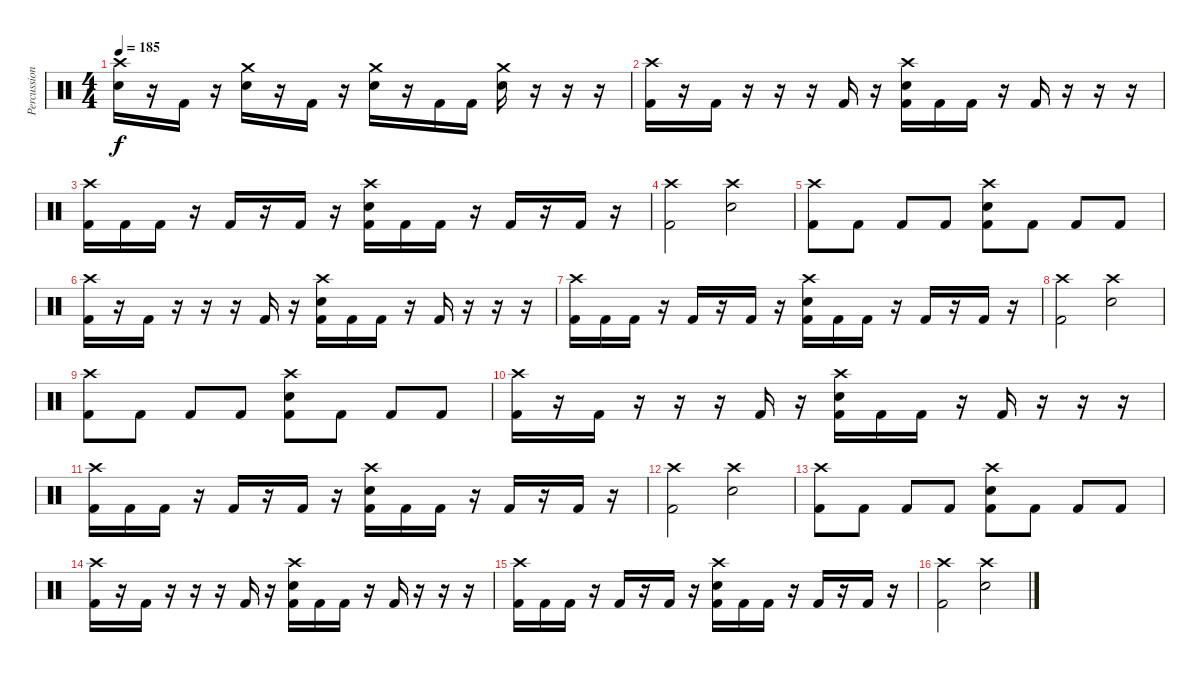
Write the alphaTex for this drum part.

\track ("Percussion" "Percussion") {instrument percussion}
\staff {score}
\articulation defaults
\ts (4 4)
\tempo 185
\clef neutral
\ks c
("Crash high (hit)" "Snare (hit) 2").16{dy f} r.16 "Kick (hit) 2".16 r.16 ("Crash medium (hit)" "Snare (hit) 2").16 r.16 "Kick (hit) 2".16 r.16 ("Crash medium (hit)" "Snare (hit) 2").16 r.16 "Kick (hit) 2".16 "Kick (hit) 2".16 ("Crash medium (hit)" "Snare (hit) 2").16 r.16 r.16 r.16 |
("Crash high (hit)" "Kick (hit) 2").16 r.16 "Kick (hit) 2".16 r.16 r.16 r.16 "Kick (hit) 2".16 r.16 ("Crash high (hit)" "Snare (hit) 2" "Kick (hit) 2").16 "Kick (hit) 2".16 "Kick (hit) 2".16 r.16 "Kick (hit) 2".16 r.16 r.16 r.16 |
("Crash high (hit)" "Kick (hit) 2").16 "Kick (hit) 2".16 "Kick (hit) 2".16 r.16 "Kick (hit) 2".16 r.16 "Kick (hit) 2".16 r.16 ("Crash high (hit)" "Snare (hit) 2" "Kick (hit) 2").16 "Kick (hit) 2".16 "Kick (hit) 2".16 r.16 "Kick (hit) 2".16 r.16 "Kick (hit) 2".16 r.16 |
("Crash high (hit)" "Kick (hit) 2").2 ("Crash high (hit)" "Snare (hit) 2").2 |
("Crash high (hit)" "Kick (hit) 2").8 "Kick (hit) 2".8 "Kick (hit) 2".8 "Kick (hit) 2".8 ("Crash high (hit)" "Snare (hit) 2" "Kick (hit) 2").8 "Kick (hit) 2".8 "Kick (hit) 2".8 "Kick (hit) 2".8 |
("Crash high (hit)" "Kick (hit) 2").16 r.16 "Kick (hit) 2".16 r.16 r.16 r.16 "Kick (hit) 2".16 r.16 ("Crash high (hit)" "Snare (hit) 2" "Kick (hit) 2").16 "Kick (hit) 2".16 "Kick (hit) 2".16 r.16 "Kick (hit) 2".16 r.16 r.16 r.16 |
("Crash high (hit)" "Kick (hit) 2").16 "Kick (hit) 2".16 "Kick (hit) 2".16 r.16 "Kick (hit) 2".16 r.16 "Kick (hit) 2".16 r.16 ("Crash high (hit)" "Snare (hit) 2" "Kick (hit) 2").16 "Kick (hit) 2".16 "Kick (hit) 2".16 r.16 "Kick (hit) 2".16 r.16 "Kick (hit) 2".16 r.16 |
("Crash high (hit)" "Kick (hit) 2").2 ("Crash high (hit)" "Snare (hit) 2").2 |
("Crash high (hit)" "Kick (hit) 2").8 "Kick (hit) 2".8 "Kick (hit) 2".8 "Kick (hit) 2".8 ("Crash high (hit)" "Snare (hit) 2" "Kick (hit) 2").8 "Kick (hit) 2".8 "Kick (hit) 2".8 "Kick (hit) 2".8 |
("Crash high (hit)" "Kick (hit) 2").16 r.16 "Kick (hit) 2".16 r.16 r.16 r.16 "Kick (hit) 2".16 r.16 ("Crash high (hit)" "Snare (hit) 2" "Kick (hit) 2").16 "Kick (hit) 2".16 "Kick (hit) 2".16 r.16 "Kick (hit) 2".16 r.16 r.16 r.16 |
("Crash high (hit)" "Kick (hit) 2").16 "Kick (hit) 2".16 "Kick (hit) 2".16 r.16 "Kick (hit) 2".16 r.16 "Kick (hit) 2".16 r.16 ("Crash high (hit)" "Snare (hit) 2" "Kick (hit) 2").16 "Kick (hit) 2".16 "Kick (hit) 2".16 r.16 "Kick (hit) 2".16 r.16 "Kick (hit) 2".16 r.16 |
("Crash high (hit)" "Kick (hit) 2").2 ("Crash high (hit)" "Snare (hit) 2").2 |
("Crash high (hit)" "Kick (hit) 2").8 "Kick (hit) 2".8 "Kick (hit) 2".8 "Kick (hit) 2".8 ("Crash high (hit)" "Snare (hit) 2" "Kick (hit) 2").8 "Kick (hit) 2".8 "Kick (hit) 2".8 "Kick (hit) 2".8 |
("Crash high (hit)" "Kick (hit) 2").16 r.16 "Kick (hit) 2".16 r.16 r.16 r.16 "Kick (hit) 2".16 r.16 ("Crash high (hit)" "Snare (hit) 2" "Kick (hit) 2").16 "Kick (hit) 2".16 "Kick (hit) 2".16 r.16 "Kick (hit) 2".16 r.16 r.16 r.16 |
("Crash high (hit)" "Kick (hit) 2").16 "Kick (hit) 2".16 "Kick (hit) 2".16 r.16 "Kick (hit) 2".16 r.16 "Kick (hit) 2".16 r.16 ("Crash high (hit)" "Snare (hit) 2" "Kick (hit) 2").16 "Kick (hit) 2".16 "Kick (hit) 2".16 r.16 "Kick (hit) 2".16 r.16 "Kick (hit) 2".16 r.16 |
("Crash high (hit)" "Kick (hit) 2").2 ("Crash high (hit)" "Snare (hit) 2").2
